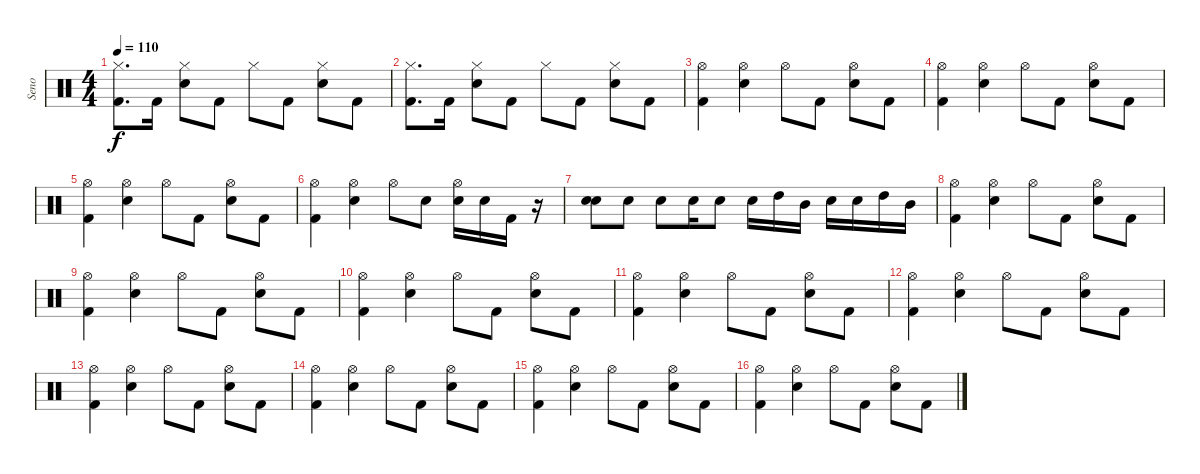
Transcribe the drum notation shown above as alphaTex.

\track ("Seno" "Seno") {instrument percussion}
\staff {score}
\articulation defaults
\ts (4 4)
\tempo 110
\clef neutral
\ks c
("Hi-Hat (closed)" "Kick (hit) 2").8{d dy f} "Kick (hit) 2".16 ("Snare (hit) 2" "Hi-Hat (closed)").8 "Kick (hit) 2".8 "Hi-Hat (closed)".8 "Kick (hit) 2".8 ("Snare (hit) 2" "Hi-Hat (closed)").8 "Kick (hit) 2".8 |
("Hi-Hat (closed)" "Kick (hit) 2").8{d} "Kick (hit) 2".16 ("Snare (hit) 2" "Hi-Hat (closed)").8 "Kick (hit) 2".8 "Hi-Hat (closed)".8 "Kick (hit) 2".8 ("Snare (hit) 2" "Hi-Hat (closed)").8 "Kick (hit) 2".8 |
("Kick (hit) 2" "Hi-Hat (open)").4 ("Snare (hit) 2" "Hi-Hat (open)").4 "Hi-Hat (open)".8 "Kick (hit) 2".8 ("Hi-Hat (open)" "Snare (hit) 2").8 "Kick (hit) 2".8 |
("Kick (hit) 2" "Hi-Hat (open)").4 ("Snare (hit) 2" "Hi-Hat (open)").4 "Hi-Hat (open)".8 "Kick (hit) 2".8 ("Hi-Hat (open)" "Snare (hit) 2").8 "Kick (hit) 2".8 |
("Kick (hit) 2" "Hi-Hat (open)").4 ("Snare (hit) 2" "Hi-Hat (open)").4 "Hi-Hat (open)".8 "Kick (hit) 2".8 ("Hi-Hat (open)" "Snare (hit) 2").8 "Kick (hit) 2".8 |
("Kick (hit) 2" "Hi-Hat (open)").4 ("Snare (hit) 2" "Hi-Hat (open)").4 "Hi-Hat (open)".8 "Snare (hit) 2".8 ("Hi-Hat (open)" "Snare (hit) 2").16 "Snare (hit) 2".16 "Kick (hit) 2".16 r.16 |
("Snare (hit) 2" "Snare (hit) 2").8{bd 480} "Snare (hit) 2".8 "Snare (hit) 2".8 "Snare (hit) 2".16 "Snare (hit) 2".8 "Snare (hit) 2".16 "High Tom (hit)".16 "Mid Tom (hit)".16 "Snare (hit) 2".16 "Snare (hit) 2".16 "High Tom (hit)".16 "Mid Tom (hit)".16 |
("Kick (hit) 2" "Hi-Hat (open)").4 ("Snare (hit) 2" "Hi-Hat (open)").4 "Hi-Hat (open)".8 "Kick (hit) 2".8 ("Hi-Hat (open)" "Snare (hit) 2").8 "Kick (hit) 2".8 |
("Kick (hit) 2" "Hi-Hat (open)").4 ("Snare (hit) 2" "Hi-Hat (open)").4 "Hi-Hat (open)".8 "Kick (hit) 2".8 ("Hi-Hat (open)" "Snare (hit) 2").8 "Kick (hit) 2".8 |
("Kick (hit) 2" "Hi-Hat (open)").4 ("Snare (hit) 2" "Hi-Hat (open)").4 "Hi-Hat (open)".8 "Kick (hit) 2".8 ("Hi-Hat (open)" "Snare (hit) 2").8 "Kick (hit) 2".8 |
("Kick (hit) 2" "Hi-Hat (open)").4 ("Snare (hit) 2" "Hi-Hat (open)").4 "Hi-Hat (open)".8 "Kick (hit) 2".8 ("Hi-Hat (open)" "Snare (hit) 2").8 "Kick (hit) 2".8 |
("Kick (hit) 2" "Hi-Hat (open)").4 ("Snare (hit) 2" "Hi-Hat (open)").4 "Hi-Hat (open)".8 "Kick (hit) 2".8 ("Hi-Hat (open)" "Snare (hit) 2").8 "Kick (hit) 2".8 |
("Kick (hit) 2" "Hi-Hat (open)").4 ("Snare (hit) 2" "Hi-Hat (open)").4 "Hi-Hat (open)".8 "Kick (hit) 2".8 ("Hi-Hat (open)" "Snare (hit) 2").8 "Kick (hit) 2".8 |
("Kick (hit) 2" "Hi-Hat (open)").4 ("Snare (hit) 2" "Hi-Hat (open)").4 "Hi-Hat (open)".8 "Kick (hit) 2".8 ("Hi-Hat (open)" "Snare (hit) 2").8 "Kick (hit) 2".8 |
("Kick (hit) 2" "Hi-Hat (open)").4 ("Snare (hit) 2" "Hi-Hat (open)").4 "Hi-Hat (open)".8 "Kick (hit) 2".8 ("Hi-Hat (open)" "Snare (hit) 2").8 "Kick (hit) 2".8 |
("Kick (hit) 2" "Hi-Hat (open)").4 ("Snare (hit) 2" "Hi-Hat (open)").4 "Hi-Hat (open)".8 "Kick (hit) 2".8 ("Hi-Hat (open)" "Snare (hit) 2").8 "Kick (hit) 2".8
